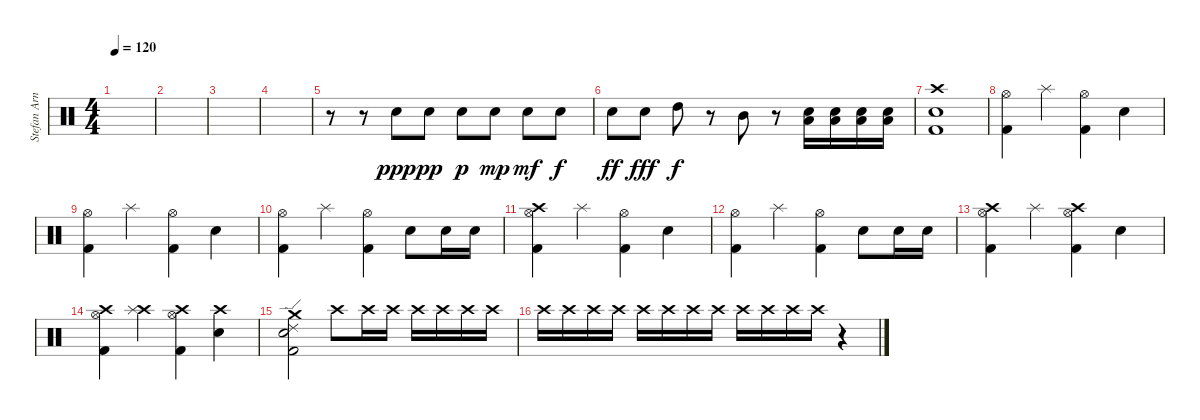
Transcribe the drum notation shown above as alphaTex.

\track ("Stefan Arnold Drums" "Stefan Arn") {instrument percussion}
\staff {score}
\articulation defaults
\ts (4 4)
\tempo 120
\clef neutral
\ks c
|
|
|
|
r.8 r.8 "Electric Snare (hit)".8{dy ppp} "Electric Snare (hit)".8{dy pp} "Electric Snare (hit)".8{dy p} "Electric Snare (hit)".8{dy mp} "Electric Snare (hit)".8{dy mf} "Electric Snare (hit)".8{dy f} |
"Electric Snare (hit)".8{dy ff} "Electric Snare (hit)".8{dy fff} "High Tom (hit)".8{dy f} r.8 "Mid Tom (hit)".8 r.8 ("Low Tom (hit)" "Snare (hit) 2").16 ("Low Tom (hit)" "Snare (hit) 2").16 ("Low Tom (hit)" "Snare (hit) 2").16 ("Low Tom (hit)" "Snare (hit) 2").16 |
("Crash high (hit)" "Kick (hit) 2" "Electric Snare (hit)").1 |
("Hi-Hat (open)" "Kick (hit) 2").4 "Splash (hit)".4 ("Hi-Hat (open)" "Kick (hit) 2").4 "Electric Snare (hit)".4 |
("Hi-Hat (open)" "Kick (hit) 2").4 "Splash (hit)".4 ("Hi-Hat (open)" "Kick (hit) 2").4 "Electric Snare (hit)".4 |
("Hi-Hat (open)" "Kick (hit) 2").4 "Splash (hit)".4 ("Hi-Hat (open)" "Kick (hit) 2").4 "Electric Snare (hit)".8 "Snare (hit) 2".16 "Snare (hit) 2".16 |
("Crash high (hit)" "Hi-Hat (open)" "Kick (hit) 2").4 "Splash (hit)".4 ("Hi-Hat (open)" "Kick (hit) 2").4 "Electric Snare (hit)".4 |
("Hi-Hat (open)" "Kick (hit) 2").4 "Splash (hit)".4 ("Hi-Hat (open)" "Kick (hit) 2").4 "Electric Snare (hit)".8 "Snare (hit) 2".16 "Snare (hit) 2".16 |
("Crash high (hit)" "Hi-Hat (open)" "Kick (hit) 2").4 "Splash (hit)".4 ("Crash high (hit)" "Hi-Hat (open)" "Kick (hit) 2").4 "Electric Snare (hit)".4 |
("Crash high (hit)" "Hi-Hat (open)" "Kick (hit) 2").4 ("Crash high (hit)" "Splash (hit)").4 ("Crash high (hit)" "Hi-Hat (open)" "Kick (hit) 2").4 ("Crash high (hit)" "Electric Snare (hit)").4 |
("Crash medium (hit)" "Ride (edge) 2" "Electric Snare (hit)" "Kick (hit) 2").2 "Crash high (hit)".8 "Crash high (hit)".16 "Crash high (hit)".16 "Crash high (hit)".16 "Crash high (hit)".16 "Crash high (hit)".16 "Crash high (hit)".16 |
"Crash high (hit)".16 "Crash high (hit)".16 "Crash high (hit)".16 "Crash high (hit)".16 "Crash high (hit)".16 "Crash high (hit)".16 "Crash high (hit)".16 "Crash high (hit)".16 "Crash high (hit)".16 "Crash high (hit)".16 "Crash high (hit)".16 "Crash high (hit)".16 r.4
